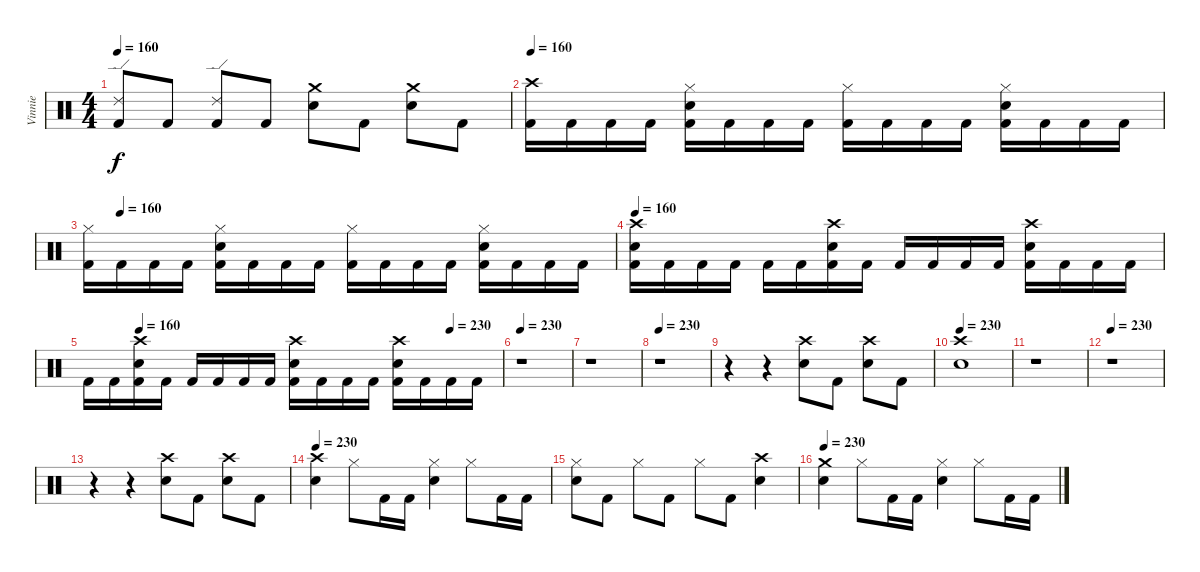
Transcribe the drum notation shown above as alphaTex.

\track ("Vinnie" "Vinnie") {instrument percussion}
\staff {score}
\articulation defaults
\ts (4 4)
\tempo 160
\clef neutral
\ks c
("Ride (edge) 2" "Kick (hit) 2").8{dy f} "Kick (hit) 2".8 ("Ride (edge) 2" "Kick (hit) 2").8 "Kick (hit) 2".8 ("Crash medium (hit)" "Electric Snare (hit)").8 "Kick (hit) 2".8 ("Crash medium (hit)" "Electric Snare (hit)").8 "Kick (hit) 2".8 |
\tempo 160
("Crash high (hit)" "Kick (hit) 2").16 "Kick (hit) 2".16 "Kick (hit) 2".16 "Kick (hit) 2".16 ("Hi-Hat (closed)" "Electric Snare (hit)" "Kick (hit) 2").16 "Kick (hit) 2".16 "Kick (hit) 2".16 "Kick (hit) 2".16 ("Hi-Hat (closed)" "Kick (hit) 2").16 "Kick (hit) 2".16 "Kick (hit) 2".16 "Kick (hit) 2".16 ("Hi-Hat (closed)" "Electric Snare (hit)" "Kick (hit) 2").16 "Kick (hit) 2".16 "Kick (hit) 2".16 "Kick (hit) 2".16 |
\tempo (160 0.0625)
("Hi-Hat (closed)" "Kick (hit) 2").16 "Kick (hit) 2".16 "Kick (hit) 2".16 "Kick (hit) 2".16 ("Hi-Hat (closed)" "Electric Snare (hit)" "Kick (hit) 2").16 "Kick (hit) 2".16 "Kick (hit) 2".16 "Kick (hit) 2".16 ("Hi-Hat (closed)" "Kick (hit) 2").16 "Kick (hit) 2".16 "Kick (hit) 2".16 "Kick (hit) 2".16 ("Hi-Hat (closed)" "Electric Snare (hit)" "Kick (hit) 2").16 "Kick (hit) 2".16 "Kick (hit) 2".16 "Kick (hit) 2".16 |
\tempo 160
("Crash high (hit)" "Electric Snare (hit)" "Kick (hit) 2").16 "Kick (hit) 2".16 "Kick (hit) 2".16 "Kick (hit) 2".16 "Kick (hit) 2".16 "Kick (hit) 2".16 ("Crash high (hit)" "Electric Snare (hit)" "Kick (hit) 2").16 "Kick (hit) 2".16 "Kick (hit) 2".16 "Kick (hit) 2".16 "Kick (hit) 2".16 "Kick (hit) 2".16 ("Crash high (hit)" "Electric Snare (hit)" "Kick (hit) 2").16 "Kick (hit) 2".16 "Kick (hit) 2".16 "Kick (hit) 2".16 |
\tempo (160 0.125)
\tempo (230 0.875)
"Kick (hit) 2".16 "Kick (hit) 2".16 ("Crash high (hit)" "Electric Snare (hit)" "Kick (hit) 2").16 "Kick (hit) 2".16 "Kick (hit) 2".16 "Kick (hit) 2".16 "Kick (hit) 2".16 "Kick (hit) 2".16 ("Crash high (hit)" "Electric Snare (hit)" "Kick (hit) 2").16 "Kick (hit) 2".16 "Kick (hit) 2".16 "Kick (hit) 2".16 ("Crash high (hit)" "Electric Snare (hit)" "Kick (hit) 2").16 "Kick (hit) 2".16 "Kick (hit) 2".16 "Kick (hit) 2".16 |
\tempo 230
r.1 |
r.1 |
\tempo 230
r.1 |
r.4 r.4 ("Crash high (hit)" "Electric Snare (hit)").8 "Kick (hit) 2".8 ("Crash high (hit)" "Electric Snare (hit)").8 "Kick (hit) 2".8 |
\tempo 230
("Crash high (hit)" "Electric Snare (hit)").1 |
r.1 |
\tempo 230
r.1 |
r.4 r.4 ("Crash high (hit)" "Electric Snare (hit)").8 "Kick (hit) 2".8 ("Crash high (hit)" "Electric Snare (hit)").8 "Kick (hit) 2".8 |
\tempo 230
("Crash high (hit)" "Electric Snare (hit)").4 "Hi-Hat (closed)".8 "Kick (hit) 2".16 "Kick (hit) 2".16 ("Hi-Hat (closed)" "Electric Snare (hit)").4 "Hi-Hat (closed)".8 "Kick (hit) 2".16 "Kick (hit) 2".16 |
("Hi-Hat (closed)" "Electric Snare (hit)").8 "Kick (hit) 2".8 "Hi-Hat (closed)".8 "Kick (hit) 2".8 "Hi-Hat (closed)".8 "Kick (hit) 2".8 ("Crash high (hit)" "Electric Snare (hit)").4 |
\tempo 230
("Crash medium (hit)" "Electric Snare (hit)").4 "Hi-Hat (closed)".8 "Kick (hit) 2".16 "Kick (hit) 2".16 ("Hi-Hat (closed)" "Electric Snare (hit)").4 "Hi-Hat (closed)".8 "Kick (hit) 2".16 "Kick (hit) 2".16
